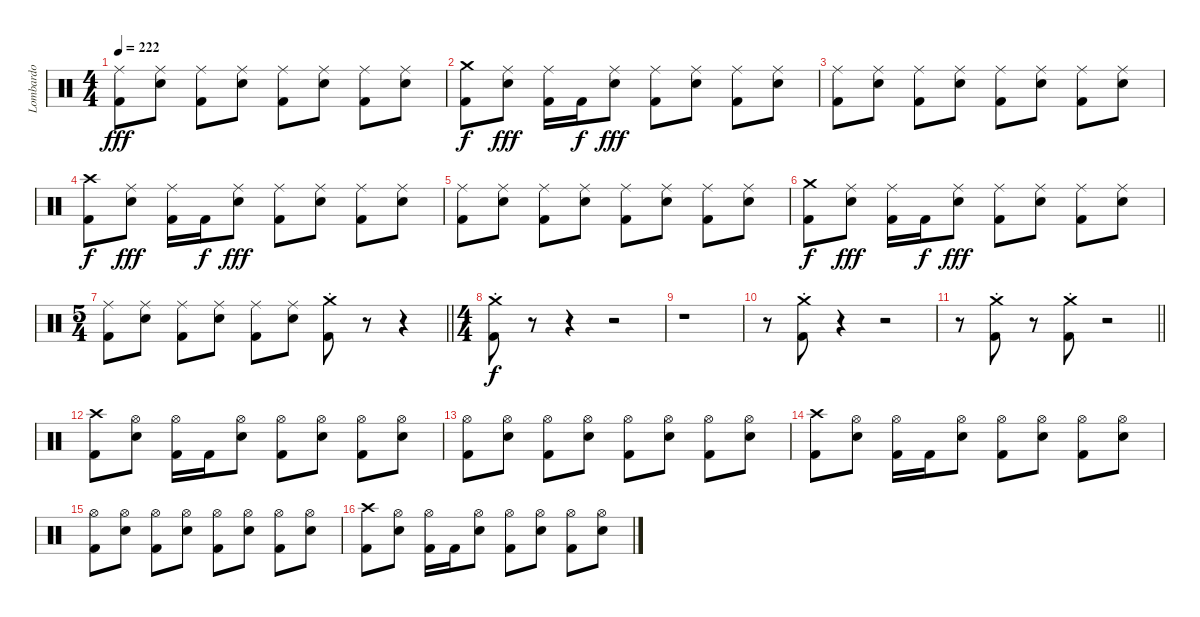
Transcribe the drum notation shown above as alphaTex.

\track ("Lombardo" "Lombardo") {instrument percussion}
\staff {score}
\articulation defaults
\ts (4 4)
\tempo 222
\clef neutral
\ks c
("Ride (middle)" "Kick (hit) 2").8{dy fff} ("Ride (middle)" "Snare (hit) 2").8 ("Ride (middle)" "Kick (hit) 2").8 ("Ride (middle)" "Snare (hit) 2").8 ("Ride (middle)" "Kick (hit) 2").8 ("Ride (middle)" "Snare (hit) 2").8 ("Ride (middle)" "Kick (hit) 2").8 ("Ride (middle)" "Snare (hit) 2").8 |
("Crash medium (hit)" "Kick (hit) 2").8{dy f} ("Ride (middle)" "Snare (hit) 2").8{dy fff} ("Ride (middle)" "Kick (hit) 2").16 "Kick (hit) 2".16{dy f} ("Ride (middle)" "Snare (hit) 2").8{dy fff} ("Ride (middle)" "Kick (hit) 2").8 ("Ride (middle)" "Snare (hit) 2").8 ("Ride (middle)" "Kick (hit) 2").8 ("Ride (middle)" "Snare (hit) 2").8 |
("Ride (middle)" "Kick (hit) 2").8 ("Ride (middle)" "Snare (hit) 2").8 ("Ride (middle)" "Kick (hit) 2").8 ("Ride (middle)" "Snare (hit) 2").8 ("Ride (middle)" "Kick (hit) 2").8 ("Ride (middle)" "Snare (hit) 2").8 ("Ride (middle)" "Kick (hit) 2").8 ("Ride (middle)" "Snare (hit) 2").8 |
("Crash high (hit)" "Kick (hit) 2").8{dy f} ("Ride (middle)" "Snare (hit) 2").8{dy fff} ("Ride (middle)" "Kick (hit) 2").16 "Kick (hit) 2".16{dy f} ("Ride (middle)" "Snare (hit) 2").8{dy fff} ("Ride (middle)" "Kick (hit) 2").8 ("Ride (middle)" "Snare (hit) 2").8 ("Ride (middle)" "Kick (hit) 2").8 ("Ride (middle)" "Snare (hit) 2").8 |
("Ride (middle)" "Kick (hit) 2").8 ("Ride (middle)" "Snare (hit) 2").8 ("Ride (middle)" "Kick (hit) 2").8 ("Ride (middle)" "Snare (hit) 2").8 ("Ride (middle)" "Kick (hit) 2").8 ("Ride (middle)" "Snare (hit) 2").8 ("Ride (middle)" "Kick (hit) 2").8 ("Ride (middle)" "Snare (hit) 2").8 |
("Crash medium (hit)" "Kick (hit) 2").8{dy f} ("Ride (middle)" "Snare (hit) 2").8{dy fff} ("Ride (middle)" "Kick (hit) 2").16 "Kick (hit) 2".16{dy f} ("Ride (middle)" "Snare (hit) 2").8{dy fff} ("Ride (middle)" "Kick (hit) 2").8 ("Ride (middle)" "Snare (hit) 2").8 ("Ride (middle)" "Kick (hit) 2").8 ("Ride (middle)" "Snare (hit) 2").8 |
\ts (5 4)
\barLineRight lightlight
("Ride (middle)" "Kick (hit) 2").8 ("Ride (middle)" "Snare (hit) 2").8 ("Ride (middle)" "Kick (hit) 2").8 ("Ride (middle)" "Snare (hit) 2").8 ("Ride (middle)" "Kick (hit) 2").8 ("Ride (middle)" "Snare (hit) 2").8 ("Crash medium (hit)"{st} "Kick (hit) 2").8 r.8 r.4 |
\ts (4 4)
("Crash medium (hit)"{st} "Kick (hit) 2").8{dy f} r.8 r.4 r.2 |
r.1 |
r.8 ("Crash medium (hit)"{st} "Kick (hit) 2").8 r.4 r.2 |
\barLineRight lightlight
r.8 ("Crash medium (hit)"{st} "Kick (hit) 2").8 r.8 ("Crash medium (hit)"{st} "Kick (hit) 2").8 r.2 |
("Crash high (hit)" "Kick (hit) 2").8 ("Hi-Hat (open)" "Snare (hit) 2").8 ("Hi-Hat (open)" "Kick (hit) 2").16 "Kick (hit) 2".16 ("Hi-Hat (open)" "Snare (hit) 2").8 ("Hi-Hat (open)" "Kick (hit) 2").8 ("Hi-Hat (open)" "Snare (hit) 2").8 ("Hi-Hat (open)" "Kick (hit) 2").8 ("Hi-Hat (open)" "Snare (hit) 2").8 |
("Hi-Hat (open)" "Kick (hit) 2").8 ("Hi-Hat (open)" "Snare (hit) 2").8 ("Hi-Hat (open)" "Kick (hit) 2").8 ("Hi-Hat (open)" "Snare (hit) 2").8 ("Hi-Hat (open)" "Kick (hit) 2").8 ("Hi-Hat (open)" "Snare (hit) 2").8 ("Hi-Hat (open)" "Kick (hit) 2").8 ("Hi-Hat (open)" "Snare (hit) 2").8 |
("Crash high (hit)" "Kick (hit) 2").8 ("Hi-Hat (open)" "Snare (hit) 2").8 ("Hi-Hat (open)" "Kick (hit) 2").16 "Kick (hit) 2".16 ("Hi-Hat (open)" "Snare (hit) 2").8 ("Hi-Hat (open)" "Kick (hit) 2").8 ("Hi-Hat (open)" "Snare (hit) 2").8 ("Hi-Hat (open)" "Kick (hit) 2").8 ("Hi-Hat (open)" "Snare (hit) 2").8 |
("Hi-Hat (open)" "Kick (hit) 2").8 ("Hi-Hat (open)" "Snare (hit) 2").8 ("Hi-Hat (open)" "Kick (hit) 2").8 ("Hi-Hat (open)" "Snare (hit) 2").8 ("Hi-Hat (open)" "Kick (hit) 2").8 ("Hi-Hat (open)" "Snare (hit) 2").8 ("Hi-Hat (open)" "Kick (hit) 2").8 ("Hi-Hat (open)" "Snare (hit) 2").8 |
("Crash high (hit)" "Kick (hit) 2").8 ("Hi-Hat (open)" "Snare (hit) 2").8 ("Hi-Hat (open)" "Kick (hit) 2").16 "Kick (hit) 2".16 ("Hi-Hat (open)" "Snare (hit) 2").8 ("Hi-Hat (open)" "Kick (hit) 2").8 ("Hi-Hat (open)" "Snare (hit) 2").8 ("Hi-Hat (open)" "Kick (hit) 2").8 ("Hi-Hat (open)" "Snare (hit) 2").8
